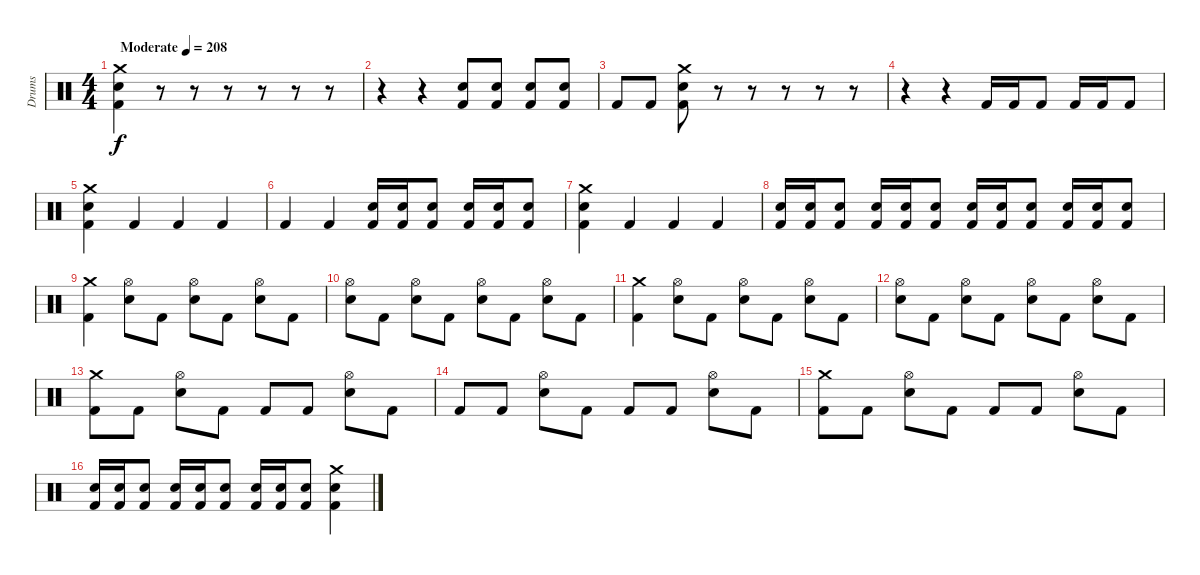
\track ("Drums" "Drums") {instrument percussion}
\staff {score}
\articulation defaults
\ts (4 4)
\tempo (208 "Moderate")
\clef neutral
\ks c
("Crash medium (hit)" "Electric Snare (hit)" "Kick (hit) 2").4{dy f} r.8 r.8 r.8 r.8 r.8 r.8 |
r.4 r.4 ("Electric Snare (hit)" "Kick (hit) 2").8 ("Electric Snare (hit)" "Kick (hit) 2").8 ("Electric Snare (hit)" "Kick (hit) 2").8 ("Electric Snare (hit)" "Kick (hit) 2").8 |
"Kick (hit) 2".8 "Kick (hit) 2".8 ("Crash medium (hit)" "Electric Snare (hit)" "Kick (hit) 2").8 r.8 r.8 r.8 r.8 r.8 |
r.4 r.4 "Kick (hit) 2".16 "Kick (hit) 2".16 "Kick (hit) 2".8 "Kick (hit) 2".16 "Kick (hit) 2".16 "Kick (hit) 2".8 |
("Crash medium (hit)" "Electric Snare (hit)" "Kick (hit) 2").4 "Kick (hit) 2".4 "Kick (hit) 2".4 "Kick (hit) 2".4 |
"Kick (hit) 2".4 "Kick (hit) 2".4 ("Electric Snare (hit)" "Kick (hit) 2").16 ("Electric Snare (hit)" "Kick (hit) 2").16 ("Electric Snare (hit)" "Kick (hit) 2").8 ("Electric Snare (hit)" "Kick (hit) 2").16 ("Electric Snare (hit)" "Kick (hit) 2").16 ("Electric Snare (hit)" "Kick (hit) 2").8 |
("Crash medium (hit)" "Electric Snare (hit)" "Kick (hit) 2").4 "Kick (hit) 2".4 "Kick (hit) 2".4 "Kick (hit) 2".4 |
("Electric Snare (hit)" "Kick (hit) 2").16 ("Electric Snare (hit)" "Kick (hit) 2").16 ("Electric Snare (hit)" "Kick (hit) 2").8 ("Electric Snare (hit)" "Kick (hit) 2").16 ("Electric Snare (hit)" "Kick (hit) 2").16 ("Electric Snare (hit)" "Kick (hit) 2").8 ("Electric Snare (hit)" "Kick (hit) 2").16 ("Electric Snare (hit)" "Kick (hit) 2").16 ("Electric Snare (hit)" "Kick (hit) 2").8 ("Electric Snare (hit)" "Kick (hit) 2").16 ("Electric Snare (hit)" "Kick (hit) 2").16 ("Electric Snare (hit)" "Kick (hit) 2").8 |
("Crash medium (hit)" "Kick (hit) 2").4 ("Hi-Hat (open)" "Electric Snare (hit)").8 "Kick (hit) 2".8 ("Hi-Hat (open)" "Electric Snare (hit)").8 "Kick (hit) 2".8 ("Hi-Hat (open)" "Electric Snare (hit)").8 "Kick (hit) 2".8 |
("Hi-Hat (open)" "Electric Snare (hit)").8 "Kick (hit) 2".8 ("Hi-Hat (open)" "Electric Snare (hit)").8 "Kick (hit) 2".8 ("Hi-Hat (open)" "Electric Snare (hit)").8 "Kick (hit) 2".8 ("Hi-Hat (open)" "Electric Snare (hit)").8 "Kick (hit) 2".8 |
("Crash medium (hit)" "Kick (hit) 2").4 ("Hi-Hat (open)" "Electric Snare (hit)").8 "Kick (hit) 2".8 ("Hi-Hat (open)" "Electric Snare (hit)").8 "Kick (hit) 2".8 ("Hi-Hat (open)" "Electric Snare (hit)").8 "Kick (hit) 2".8 |
("Hi-Hat (open)" "Electric Snare (hit)").8 "Kick (hit) 2".8 ("Hi-Hat (open)" "Electric Snare (hit)").8 "Kick (hit) 2".8 ("Hi-Hat (open)" "Electric Snare (hit)").8 "Kick (hit) 2".8 ("Hi-Hat (open)" "Electric Snare (hit)").8 "Kick (hit) 2".8 |
("Crash medium (hit)" "Kick (hit) 2").8 "Kick (hit) 2".8 ("Hi-Hat (open)" "Electric Snare (hit)").8 "Kick (hit) 2".8 "Kick (hit) 2".8 "Kick (hit) 2".8 ("Hi-Hat (open)" "Electric Snare (hit)").8 "Kick (hit) 2".8 |
"Kick (hit) 2".8 "Kick (hit) 2".8 ("Hi-Hat (open)" "Electric Snare (hit)").8 "Kick (hit) 2".8 "Kick (hit) 2".8 "Kick (hit) 2".8 ("Hi-Hat (open)" "Electric Snare (hit)").8 "Kick (hit) 2".8 |
("Crash medium (hit)" "Kick (hit) 2").8 "Kick (hit) 2".8 ("Hi-Hat (open)" "Electric Snare (hit)").8 "Kick (hit) 2".8 "Kick (hit) 2".8 "Kick (hit) 2".8 ("Hi-Hat (open)" "Electric Snare (hit)").8 "Kick (hit) 2".8 |
("Electric Snare (hit)" "Kick (hit) 2").16 ("Electric Snare (hit)" "Kick (hit) 2").16 ("Electric Snare (hit)" "Kick (hit) 2").8 ("Electric Snare (hit)" "Kick (hit) 2").16 ("Electric Snare (hit)" "Kick (hit) 2").16 ("Electric Snare (hit)" "Kick (hit) 2").8 ("Electric Snare (hit)" "Kick (hit) 2").16 ("Electric Snare (hit)" "Kick (hit) 2").16 ("Electric Snare (hit)" "Kick (hit) 2").8 ("Crash medium (hit)" "Electric Snare (hit)" "Kick (hit) 2").4
